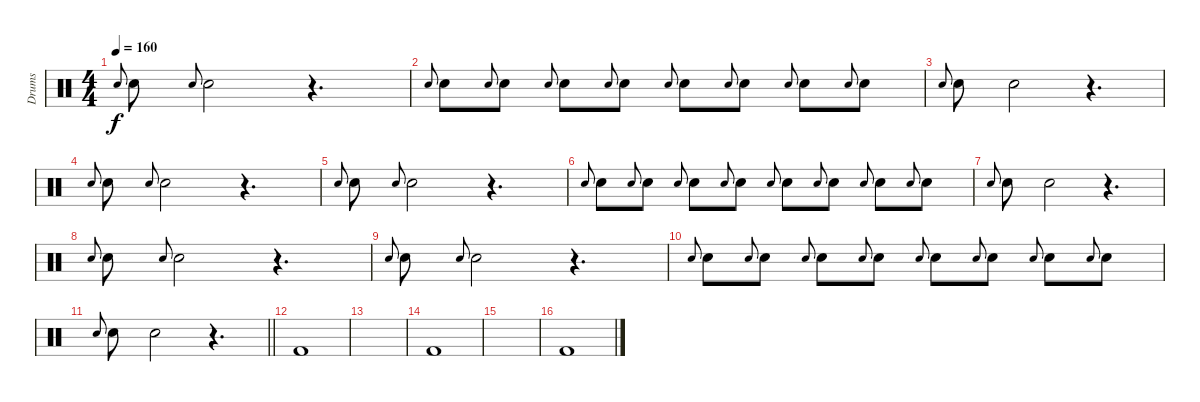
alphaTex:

\track ("Drums" "Drums") {instrument percussion}
\staff {score}
\articulation defaults
\ts (4 4)
\tempo 160
\clef neutral
\ks c "Electric Snare (hit)".8{gr onbeat dy f} "Electric Snare (hit)".8 "Electric Snare (hit)".8{gr onbeat} "Electric Snare (hit)".2
r.4{d} |
"Electric Snare (hit)".8{gr onbeat} "Electric Snare (hit)".8 "Electric Snare (hit)".8{gr onbeat} "Electric Snare (hit)".8 "Electric Snare (hit)".8{gr onbeat} "Electric Snare (hit)".8 "Electric Snare (hit)".8{gr onbeat} "Electric Snare (hit)".8 "Electric Snare (hit)".8{gr onbeat} "Electric Snare (hit)".8 "Electric Snare (hit)".8{gr onbeat} "Electric Snare (hit)".8 "Electric Snare (hit)".8{gr onbeat} "Electric Snare (hit)".8 "Electric Snare (hit)".8{gr onbeat} "Electric Snare (hit)".8 |
"Electric Snare (hit)".8{gr onbeat} "Electric Snare (hit)".8 "Electric Snare (hit)".2 r.4{d} |
"Electric Snare (hit)".8{gr onbeat} "Electric Snare (hit)".8 "Electric Snare (hit)".8{gr onbeat} "Electric Snare (hit)".2 r.4{d} |
"Electric Snare (hit)".8{gr onbeat} "Electric Snare (hit)".8 "Electric Snare (hit)".8{gr onbeat} "Electric Snare (hit)".2 r.4{d} |
"Electric Snare (hit)".8{gr onbeat} "Electric Snare (hit)".8 "Electric Snare (hit)".8{gr onbeat} "Electric Snare (hit)".8 "Electric Snare (hit)".8{gr onbeat} "Electric Snare (hit)".8 "Electric Snare (hit)".8{gr onbeat} "Electric Snare (hit)".8 "Electric Snare (hit)".8{gr onbeat} "Electric Snare (hit)".8 "Electric Snare (hit)".8{gr onbeat} "Electric Snare (hit)".8 "Electric Snare (hit)".8{gr onbeat} "Electric Snare (hit)".8 "Electric Snare (hit)".8{gr onbeat} "Electric Snare (hit)".8 |
"Electric Snare (hit)".8{gr onbeat} "Electric Snare (hit)".8 "Electric Snare (hit)".2 r.4{d} |
"Electric Snare (hit)".8{gr onbeat} "Electric Snare (hit)".8 "Electric Snare (hit)".8{gr onbeat} "Electric Snare (hit)".2 r.4{d} |
"Electric Snare (hit)".8{gr onbeat} "Electric Snare (hit)".8 "Electric Snare (hit)".8{gr onbeat} "Electric Snare (hit)".2 r.4{d} |
"Electric Snare (hit)".8{gr onbeat} "Electric Snare (hit)".8 "Electric Snare (hit)".8{gr onbeat} "Electric Snare (hit)".8 "Electric Snare (hit)".8{gr onbeat} "Electric Snare (hit)".8 "Electric Snare (hit)".8{gr onbeat} "Electric Snare (hit)".8 "Electric Snare (hit)".8{gr onbeat} "Electric Snare (hit)".8 "Electric Snare (hit)".8{gr onbeat} "Electric Snare (hit)".8 "Electric Snare (hit)".8{gr onbeat} "Electric Snare (hit)".8 "Electric Snare (hit)".8{gr onbeat} "Electric Snare (hit)".8 |
\barLineRight lightlight "Electric Snare (hit)".8{gr onbeat} "Electric Snare (hit)".8 "Electric Snare (hit)".2
r.4{d} |
"Kick (hit) 2".1 |
|
"Kick (hit) 2".1 |
|
"Kick (hit) 2".1
